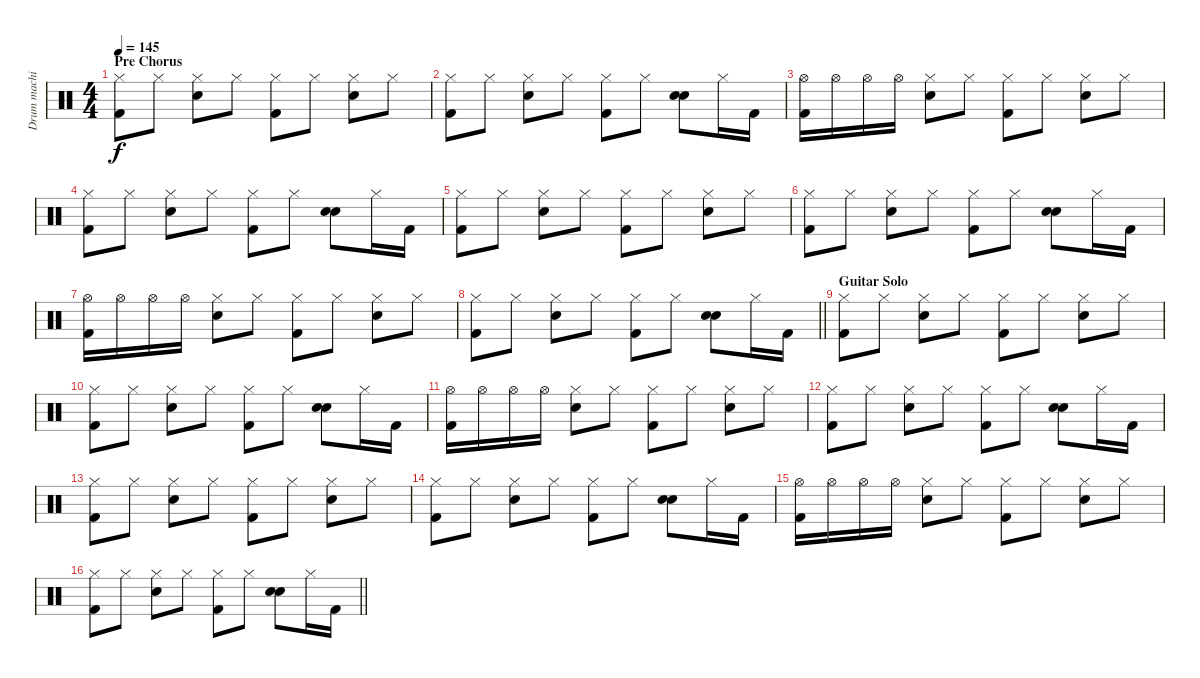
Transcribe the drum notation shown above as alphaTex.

\track ("Drum machine" "Drum machi") {instrument percussion}
\staff {score}
\articulation defaults
\ts (4 4)
\section ("" "Pre Chorus")
\tempo 145
\clef neutral
\ks c
("Hi-Hat (closed)" "Kick (hit) 2").8{dy f} "Hi-Hat (closed)".8 ("Hi-Hat (closed)" "Electric Snare (hit)").8 "Hi-Hat (closed)".8 ("Hi-Hat (closed)" "Kick (hit) 2").8 "Hi-Hat (closed)".8 ("Hi-Hat (closed)" "Electric Snare (hit)").8 "Hi-Hat (closed)".8 |
("Hi-Hat (closed)" "Kick (hit) 2").8 "Hi-Hat (closed)".8 ("Hi-Hat (closed)" "Electric Snare (hit)").8 "Hi-Hat (closed)".8 ("Hi-Hat (closed)" "Kick (hit) 2").8 "Hi-Hat (closed)".8 ("Snare (hit) 2" "Electric Snare (hit)").8 "Hi-Hat (closed)".16 "Kick (hit) 2".16 |
("Hi-Hat (open)" "Kick (hit) 2").16 "Hi-Hat (open)".16 "Hi-Hat (open)".16 "Hi-Hat (open)".16 ("Hi-Hat (closed)" "Electric Snare (hit)").8 "Hi-Hat (closed)".8 ("Hi-Hat (closed)" "Kick (hit) 2").8 "Hi-Hat (closed)".8 ("Hi-Hat (closed)" "Electric Snare (hit)").8 "Hi-Hat (closed)".8 |
("Hi-Hat (closed)" "Kick (hit) 2").8 "Hi-Hat (closed)".8 ("Hi-Hat (closed)" "Electric Snare (hit)").8 "Hi-Hat (closed)".8 ("Hi-Hat (closed)" "Kick (hit) 2").8 "Hi-Hat (closed)".8 ("Snare (hit) 2" "Electric Snare (hit)").8 "Hi-Hat (closed)".16 "Kick (hit) 2".16 |
("Hi-Hat (closed)" "Kick (hit) 2").8 "Hi-Hat (closed)".8 ("Hi-Hat (closed)" "Electric Snare (hit)").8 "Hi-Hat (closed)".8 ("Hi-Hat (closed)" "Kick (hit) 2").8 "Hi-Hat (closed)".8 ("Hi-Hat (closed)" "Electric Snare (hit)").8 "Hi-Hat (closed)".8 |
("Hi-Hat (closed)" "Kick (hit) 2").8 "Hi-Hat (closed)".8 ("Hi-Hat (closed)" "Electric Snare (hit)").8 "Hi-Hat (closed)".8 ("Hi-Hat (closed)" "Kick (hit) 2").8 "Hi-Hat (closed)".8 ("Snare (hit) 2" "Electric Snare (hit)").8 "Hi-Hat (closed)".16 "Kick (hit) 2".16 |
("Hi-Hat (open)" "Kick (hit) 2").16 "Hi-Hat (open)".16 "Hi-Hat (open)".16 "Hi-Hat (open)".16 ("Hi-Hat (closed)" "Electric Snare (hit)").8 "Hi-Hat (closed)".8 ("Hi-Hat (closed)" "Kick (hit) 2").8 "Hi-Hat (closed)".8 ("Hi-Hat (closed)" "Electric Snare (hit)").8 "Hi-Hat (closed)".8 |
\barLineRight lightlight
("Hi-Hat (closed)" "Kick (hit) 2").8 "Hi-Hat (closed)".8 ("Hi-Hat (closed)" "Electric Snare (hit)").8 "Hi-Hat (closed)".8 ("Hi-Hat (closed)" "Kick (hit) 2").8 "Hi-Hat (closed)".8 ("Snare (hit) 2" "Electric Snare (hit)").8 "Hi-Hat (closed)".16 "Kick (hit) 2".16 |
\section ("" "Guitar Solo")
("Hi-Hat (closed)" "Kick (hit) 2").8 "Hi-Hat (closed)".8 ("Hi-Hat (closed)" "Electric Snare (hit)").8 "Hi-Hat (closed)".8 ("Hi-Hat (closed)" "Kick (hit) 2").8 "Hi-Hat (closed)".8 ("Hi-Hat (closed)" "Electric Snare (hit)").8 "Hi-Hat (closed)".8 |
("Hi-Hat (closed)" "Kick (hit) 2").8 "Hi-Hat (closed)".8 ("Hi-Hat (closed)" "Electric Snare (hit)").8 "Hi-Hat (closed)".8 ("Hi-Hat (closed)" "Kick (hit) 2").8 "Hi-Hat (closed)".8 ("Snare (hit) 2" "Electric Snare (hit)").8 "Hi-Hat (closed)".16 "Kick (hit) 2".16 |
("Hi-Hat (open)" "Kick (hit) 2").16 "Hi-Hat (open)".16 "Hi-Hat (open)".16 "Hi-Hat (open)".16 ("Hi-Hat (closed)" "Electric Snare (hit)").8 "Hi-Hat (closed)".8 ("Hi-Hat (closed)" "Kick (hit) 2").8 "Hi-Hat (closed)".8 ("Hi-Hat (closed)" "Electric Snare (hit)").8 "Hi-Hat (closed)".8 |
("Hi-Hat (closed)" "Kick (hit) 2").8 "Hi-Hat (closed)".8 ("Hi-Hat (closed)" "Electric Snare (hit)").8 "Hi-Hat (closed)".8 ("Hi-Hat (closed)" "Kick (hit) 2").8 "Hi-Hat (closed)".8 ("Snare (hit) 2" "Electric Snare (hit)").8 "Hi-Hat (closed)".16 "Kick (hit) 2".16 |
("Hi-Hat (closed)" "Kick (hit) 2").8 "Hi-Hat (closed)".8 ("Hi-Hat (closed)" "Electric Snare (hit)").8 "Hi-Hat (closed)".8 ("Hi-Hat (closed)" "Kick (hit) 2").8 "Hi-Hat (closed)".8 ("Hi-Hat (closed)" "Electric Snare (hit)").8 "Hi-Hat (closed)".8 |
("Hi-Hat (closed)" "Kick (hit) 2").8 "Hi-Hat (closed)".8 ("Hi-Hat (closed)" "Electric Snare (hit)").8 "Hi-Hat (closed)".8 ("Hi-Hat (closed)" "Kick (hit) 2").8 "Hi-Hat (closed)".8 ("Snare (hit) 2" "Electric Snare (hit)").8 "Hi-Hat (closed)".16 "Kick (hit) 2".16 |
("Hi-Hat (open)" "Kick (hit) 2").16 "Hi-Hat (open)".16 "Hi-Hat (open)".16 "Hi-Hat (open)".16 ("Hi-Hat (closed)" "Electric Snare (hit)").8 "Hi-Hat (closed)".8 ("Hi-Hat (closed)" "Kick (hit) 2").8 "Hi-Hat (closed)".8 ("Hi-Hat (closed)" "Electric Snare (hit)").8 "Hi-Hat (closed)".8 |
\barLineRight lightlight
("Hi-Hat (closed)" "Kick (hit) 2").8 "Hi-Hat (closed)".8 ("Hi-Hat (closed)" "Electric Snare (hit)").8 "Hi-Hat (closed)".8 ("Hi-Hat (closed)" "Kick (hit) 2").8 "Hi-Hat (closed)".8 ("Snare (hit) 2" "Electric Snare (hit)").8 "Hi-Hat (closed)".16 "Kick (hit) 2".16
